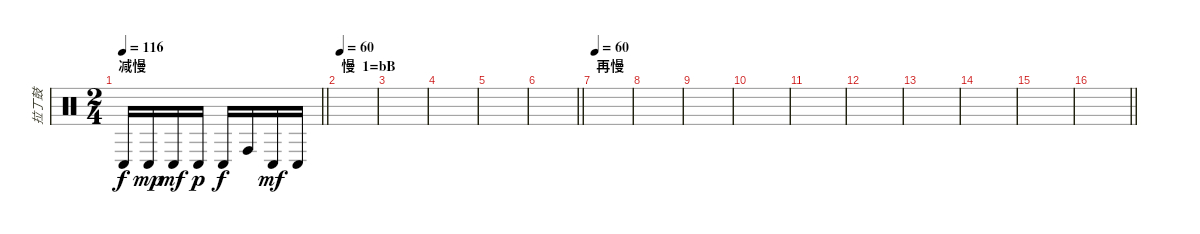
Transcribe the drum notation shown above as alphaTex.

\track ("拉丁鼓" "拉丁鼓") {instrument percussion}
\staff {score}
\articulation defaults
\ts (2 4)
\section ("" "减慢")
\tempo 116
\clef neutral
\barLineRight lightlight
\ks c "Conga low (hit)".16{dy f} "Conga low (hit)".16{dy mp} "Conga low (hit)".16{dy mf} "Conga low (hit)".16{dy p} "Conga low (hit)".16{dy f} "Conga high (hit)".16 "Conga low (hit)".16{dy mf} "Conga low (hit)".16
|
\section ("" "慢  1=bB")
\tempo 60
|
|
|
|
\barLineRight lightlight
|
\section ("" "再慢")
\tempo 60
|
|
|
|
|
|
|
|
|
\barLineRight lightlight
